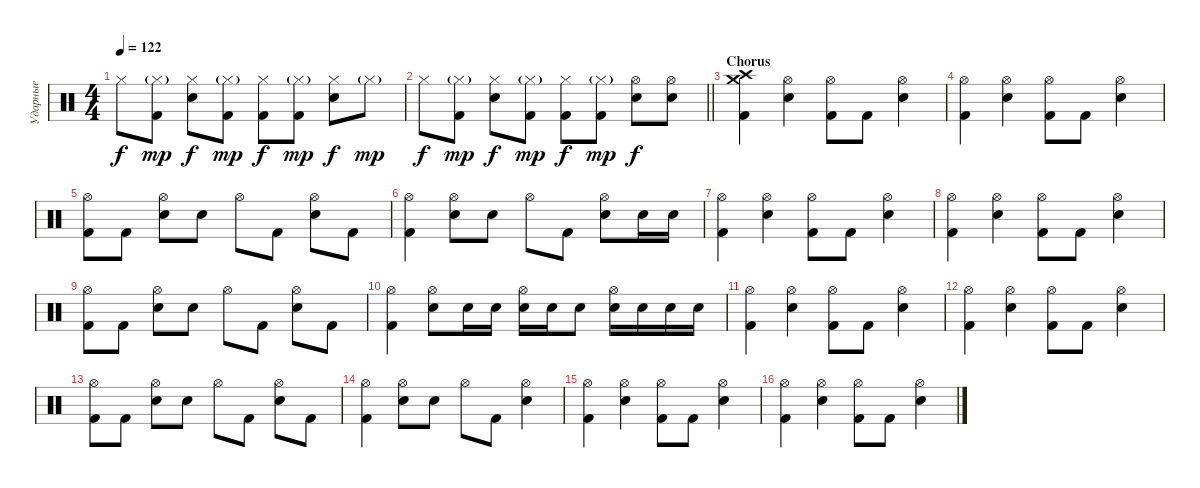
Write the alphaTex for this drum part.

\track ("Ударные" "Ударные") {instrument percussion}
\staff {score}
\articulation defaults
\ts (4 4)
\tempo 122
\clef neutral
\ks c "Hi-Hat (closed)".8{dy f}
("Hi-Hat (closed)"{g} "Kick (hit) 2").8{dy mp} ("Hi-Hat (closed)" "Electric Snare (hit)").8{dy f} ("Hi-Hat (closed)"{g} "Kick (hit) 2").8{dy mp} ("Hi-Hat (closed)" "Kick (hit) 2").8{dy f} ("Hi-Hat (closed)"{g} "Kick (hit) 2").8{dy mp} ("Hi-Hat (closed)" "Electric Snare (hit)").8{dy f} "Hi-Hat (closed)"{g}.8{dy mp} |
\barLineRight lightlight "Hi-Hat (closed)".8{dy f}
("Hi-Hat (closed)"{g} "Kick (hit) 2").8{dy mp} ("Hi-Hat (closed)" "Electric Snare (hit)").8{dy f} ("Hi-Hat (closed)"{g} "Kick (hit) 2").8{dy mp} ("Hi-Hat (closed)" "Kick (hit) 2").8{dy f} ("Hi-Hat (closed)"{g} "Kick (hit) 2").8{dy mp} ("Hi-Hat (open)" "Electric Snare (hit)").8{dy f} ("Hi-Hat (open)" "Electric Snare (hit)").8 |
\section ("" "Сhorus")
("Crash medium (hit)" "Crash high (hit)" "Kick (hit) 2").4 ("Hi-Hat (open)" "Electric Snare (hit)").4 ("Hi-Hat (open)" "Kick (hit) 2").8 "Kick (hit) 2".8 ("Hi-Hat (open)" "Electric Snare (hit)").4 |
("Hi-Hat (open)" "Kick (hit) 2").4 ("Hi-Hat (open)" "Electric Snare (hit)").4 ("Hi-Hat (open)" "Kick (hit) 2").8 "Kick (hit) 2".8 ("Hi-Hat (open)" "Electric Snare (hit)").4 |
("Hi-Hat (open)" "Kick (hit) 2").8 "Kick (hit) 2".8 ("Hi-Hat (open)" "Electric Snare (hit)").8 "Electric Snare (hit)".8 "Hi-Hat (open)".8 "Kick (hit) 2".8 ("Hi-Hat (open)" "Electric Snare (hit)").8 "Kick (hit) 2".8 |
("Hi-Hat (open)" "Kick (hit) 2").4 ("Hi-Hat (open)" "Electric Snare (hit)").8 "Electric Snare (hit)".8 "Hi-Hat (open)".8 "Kick (hit) 2".8 ("Hi-Hat (open)" "Electric Snare (hit)").8 "Electric Snare (hit)".16 "Electric Snare (hit)".16 |
("Hi-Hat (open)" "Kick (hit) 2").4 ("Hi-Hat (open)" "Electric Snare (hit)").4 ("Hi-Hat (open)" "Kick (hit) 2").8 "Kick (hit) 2".8 ("Hi-Hat (open)" "Electric Snare (hit)").4 |
("Hi-Hat (open)" "Kick (hit) 2").4 ("Hi-Hat (open)" "Electric Snare (hit)").4 ("Hi-Hat (open)" "Kick (hit) 2").8 "Kick (hit) 2".8 ("Hi-Hat (open)" "Electric Snare (hit)").4 |
("Hi-Hat (open)" "Kick (hit) 2").8 "Kick (hit) 2".8 ("Hi-Hat (open)" "Electric Snare (hit)").8 "Electric Snare (hit)".8 "Hi-Hat (open)".8 "Kick (hit) 2".8 ("Hi-Hat (open)" "Electric Snare (hit)").8 "Kick (hit) 2".8 |
("Hi-Hat (open)" "Kick (hit) 2").4 ("Hi-Hat (open)" "Electric Snare (hit)").8 "Electric Snare (hit)".16 "Electric Snare (hit)".16 ("Hi-Hat (open)" "Electric Snare (hit)").16 "Electric Snare (hit)".16 "Electric Snare (hit)".8 ("Hi-Hat (open)" "Electric Snare (hit)").16 "Electric Snare (hit)".16 "Electric Snare (hit)".16 "Electric Snare (hit)".16 |
("Hi-Hat (open)" "Kick (hit) 2").4 ("Hi-Hat (open)" "Electric Snare (hit)").4 ("Hi-Hat (open)" "Kick (hit) 2").8 "Kick (hit) 2".8 ("Hi-Hat (open)" "Electric Snare (hit)").4 |
("Hi-Hat (open)" "Kick (hit) 2").4 ("Hi-Hat (open)" "Electric Snare (hit)").4 ("Hi-Hat (open)" "Kick (hit) 2").8 "Kick (hit) 2".8 ("Hi-Hat (open)" "Electric Snare (hit)").4 |
("Hi-Hat (open)" "Kick (hit) 2").8 "Kick (hit) 2".8 ("Hi-Hat (open)" "Electric Snare (hit)").8 "Electric Snare (hit)".8 "Hi-Hat (open)".8 "Kick (hit) 2".8 ("Hi-Hat (open)" "Electric Snare (hit)").8 "Kick (hit) 2".8 |
("Hi-Hat (open)" "Kick (hit) 2").4 ("Hi-Hat (open)" "Electric Snare (hit)").8 "Electric Snare (hit)".8 "Hi-Hat (open)".8 "Kick (hit) 2".8 ("Hi-Hat (open)" "Electric Snare (hit)").4 |
("Hi-Hat (open)" "Kick (hit) 2").4 ("Hi-Hat (open)" "Electric Snare (hit)").4 ("Hi-Hat (open)" "Kick (hit) 2").8 "Kick (hit) 2".8 ("Hi-Hat (open)" "Electric Snare (hit)").4 |
("Hi-Hat (open)" "Kick (hit) 2").4 ("Hi-Hat (open)" "Electric Snare (hit)").4 ("Hi-Hat (open)" "Kick (hit) 2").8 "Kick (hit) 2".8 ("Hi-Hat (open)" "Electric Snare (hit)").4
